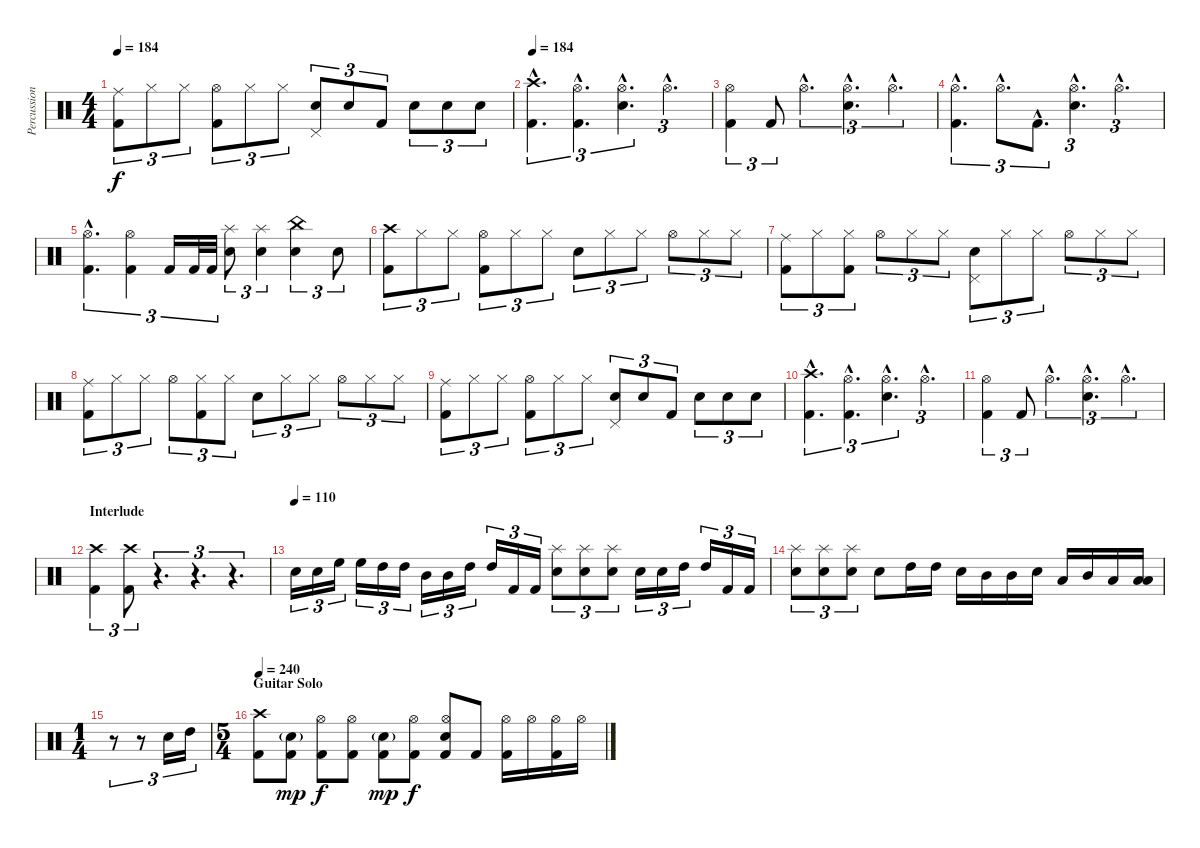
\track ("Percussion" "Percussion") {instrument percussion}
\staff {score}
\articulation defaults
\ts (4 4)
\tempo 184
\clef neutral
\ks c
("Ride (middle)" "Kick (hit) 2").8{tu (3 2) dy f} "Hi-Hat (closed)".8{tu (3 2)} "Hi-Hat (closed)".8{tu (3 2)} ("Hi-Hat (open)" "Kick (hit) 2").8{tu (3 2)} "Hi-Hat (closed)".8{tu (3 2)} "Hi-Hat (closed)".8{tu (3 2)} ("Electric Snare (hit)" "Pedal Hi-Hat (hit)").8{tu (3 2)} "Electric Snare (hit)".8{tu (3 2)} "Kick (hit) 2".8{tu (3 2)} "Electric Snare (hit)".8{tu (3 2)} "Electric Snare (hit)".8{tu (3 2)} "Electric Snare (hit)".8{tu (3 2)} |
\tempo 184
("Crash high (hit)"{hac} "Kick (hit) 2"{hac}).4{d tu (3 2)} ("Hi-Hat (open)"{hac} "Kick (hit) 2"{hac}).4{d tu (3 2)} ("Hi-Hat (open)"{hac} "Electric Snare (hit)"{hac}).4{d tu (3 2)} "Hi-Hat (open)"{hac}.4{d tu (3 2)} |
("Hi-Hat (open)" "Kick (hit) 2").4{tu (3 2)} "Kick (hit) 2".8{tu (3 2)} "Hi-Hat (open)"{hac}.4{d tu (3 2)} ("Hi-Hat (open)"{hac} "Electric Snare (hit)"{hac}).4{d tu (3 2)} "Hi-Hat (open)"{hac}.4{d tu (3 2)} |
("Hi-Hat (open)"{hac} "Kick (hit) 2"{hac}).4{d tu (3 2)} "Hi-Hat (open)"{hac}.8{d tu (3 2)} "Kick (hit) 2"{hac}.8{d tu (3 2)} ("Hi-Hat (open)"{hac} "Electric Snare (hit)"{hac}).4{d tu (3 2)} "Hi-Hat (open)"{hac}.4{d tu (3 2)} |
("Hi-Hat (open)"{hac} "Kick (hit) 2"{hac}).4{d tu (3 2)} ("Hi-Hat (open)" "Kick (hit) 2").4{tu (3 2)} "Kick (hit) 2".16{tu (3 2)} "Kick (hit) 2".32{tu (3 2)} "Kick (hit) 2".32{tu (3 2)} ("Splash (hit)" "Electric Snare (hit)").8{tu (3 2)} ("Splash (hit)" "Electric Snare (hit)").4{tu (3 2)} ("China (hit)" "Electric Snare (hit)").4{tu (3 2)} "Electric Snare (hit)".8{tu (3 2)} |
("Crash high (hit)" "Kick (hit) 2").8{tu (3 2)} "Hi-Hat (closed)".8{tu (3 2)} "Hi-Hat (closed)".8{tu (3 2)} ("Hi-Hat (open)" "Kick (hit) 2").8{tu (3 2)} "Hi-Hat (closed)".8{tu (3 2)} "Hi-Hat (closed)".8{tu (3 2)} "Electric Snare (hit)".8{tu (3 2)} "Hi-Hat (closed)".8{tu (3 2)} "Hi-Hat (closed)".8{tu (3 2)} "Hi-Hat (open)".8{tu (3 2)} "Hi-Hat (closed)".8{tu (3 2)} "Hi-Hat (closed)".8{tu (3 2)} |
("Ride (middle)" "Kick (hit) 2").8{tu (3 2)} "Hi-Hat (closed)".8{tu (3 2)} ("Hi-Hat (closed)" "Kick (hit) 2").8{tu (3 2)} "Hi-Hat (open)".8{tu (3 2)} "Hi-Hat (closed)".8{tu (3 2)} "Hi-Hat (closed)".8{tu (3 2)} ("Electric Snare (hit)" "Pedal Hi-Hat (hit)").8{tu (3 2)} "Hi-Hat (closed)".8{tu (3 2)} "Hi-Hat (closed)".8{tu (3 2)} "Hi-Hat (open)".8{tu (3 2)} "Hi-Hat (closed)".8{tu (3 2)} "Hi-Hat (closed)".8{tu (3 2)} |
("Ride (middle)" "Kick (hit) 2").8{tu (3 2)} "Hi-Hat (closed)".8{tu (3 2)} "Hi-Hat (closed)".8{tu (3 2)} "Hi-Hat (open)".8{tu (3 2)} ("Hi-Hat (closed)" "Kick (hit) 2").8{tu (3 2)} "Hi-Hat (closed)".8{tu (3 2)} "Electric Snare (hit)".8{tu (3 2)} "Hi-Hat (closed)".8{tu (3 2)} "Hi-Hat (closed)".8{tu (3 2)} "Hi-Hat (open)".8{tu (3 2)} "Hi-Hat (closed)".8{tu (3 2)} "Hi-Hat (closed)".8{tu (3 2)} |
("Ride (middle)" "Kick (hit) 2").8{tu (3 2)} "Hi-Hat (closed)".8{tu (3 2)} "Hi-Hat (closed)".8{tu (3 2)} ("Hi-Hat (open)" "Kick (hit) 2").8{tu (3 2)} "Hi-Hat (closed)".8{tu (3 2)} "Hi-Hat (closed)".8{tu (3 2)} ("Electric Snare (hit)" "Pedal Hi-Hat (hit)").8{tu (3 2)} "Electric Snare (hit)".8{tu (3 2)} "Kick (hit) 2".8{tu (3 2)} "Electric Snare (hit)".8{tu (3 2)} "Electric Snare (hit)".8{tu (3 2)} "Electric Snare (hit)".8{tu (3 2)} |
("Crash high (hit)"{hac} "Kick (hit) 2"{hac}).4{d tu (3 2)} ("Hi-Hat (open)"{hac} "Kick (hit) 2"{hac}).4{d tu (3 2)} ("Hi-Hat (open)"{hac} "Electric Snare (hit)"{hac}).4{d tu (3 2)} "Hi-Hat (open)"{hac}.4{d tu (3 2)} |
("Hi-Hat (open)" "Kick (hit) 2").4{tu (3 2)} "Kick (hit) 2".8{tu (3 2)} "Hi-Hat (open)"{hac}.4{d tu (3 2)} ("Hi-Hat (open)"{hac} "Electric Snare (hit)"{hac}).4{d tu (3 2)} "Hi-Hat (open)"{hac}.4{d tu (3 2)} |
\section ("" "Interlude")
("Crash high (hit)" "Kick (hit) 2").4{tu (3 2)} ("Crash high (hit)" "Kick (hit) 2").8{tu (3 2)} r.4{d tu (3 2)} r.4{d tu (3 2)} r.4{d tu (3 2)} |
\tempo (110)
"Electric Snare (hit)".16{tu (3 2)} "Electric Snare (hit)".16{tu (3 2)} "High Floor Tom (hit)".16{tu (3 2)} "High Floor Tom (hit)".16{tu (3 2)} "High Tom (hit)".16{tu (3 2)} "High Tom (hit)".16{tu (3 2)} "Mid Tom (hit)".16{tu (3 2)} "Mid Tom (hit)".16{tu (3 2)} "High Tom (hit)".16{tu (3 2)} "High Tom (hit)".16{tu (3 2)} "Kick (hit) 2".16{tu (3 2)} "Kick (hit) 2".16{tu (3 2)} ("Splash (hit)" "Electric Snare (hit)").8{tu (3 2)} ("Splash (hit)" "Electric Snare (hit)").8{tu (3 2)} ("Splash (hit)" "Electric Snare (hit)").8{tu (3 2)} "Electric Snare (hit)".16{tu (3 2)} "Electric Snare (hit)".16{tu (3 2)} "High Tom (hit)".16{tu (3 2)} "High Tom (hit)".16{tu (3 2)} "Kick (hit) 2".16{tu (3 2)} "Kick (hit) 2".16{tu (3 2)} |
("Splash (hit)" "Electric Snare (hit)").8{tu (3 2)} ("Splash (hit)" "Electric Snare (hit)").8{tu (3 2)} ("Splash (hit)" "Electric Snare (hit)").8{tu (3 2)} "Electric Snare (hit)".8 "High Tom (hit)".16 "High Tom (hit)".16 "Electric Snare (hit)".16 "Mid Tom (hit)".16 "Mid Tom (hit)".16 "Electric Snare (hit)".16 "Low Tom (hit)".16 "Mid Tom (hit)".16 "Low Tom (hit)".16 ("Low Tom (hit)" "Low Floor Tom (hit)").16 |
\ts (1 4)
r.8{tu (3 2)} r.8{tu (3 2)} "Electric Snare (hit)".16{tu (3 2)} "High Tom (hit)".16{tu (3 2)} |
\ts (5 4)
\section ("" "Guitar Solo")
\tempo 240
("Crash high (hit)" "Kick (hit) 2").8 ("Electric Snare (hit)"{g} "Kick (hit) 2").8{dy mp} ("Hi-Hat (open)" "Kick (hit) 2").8{dy f} ("Hi-Hat (open)" "Kick (hit) 2").8 ("Electric Snare (hit)"{g} "Kick (hit) 2").8{dy mp} ("Hi-Hat (open)" "Kick (hit) 2").8{dy f} ("Hi-Hat (open)" "Electric Snare (hit)" "Kick (hit) 2").8 "Kick (hit) 2".8 ("Hi-Hat (open)" "Kick (hit) 2").16 "Hi-Hat (open)".16 ("Hi-Hat (open)" "Kick (hit) 2").16 "Hi-Hat (open)".16
